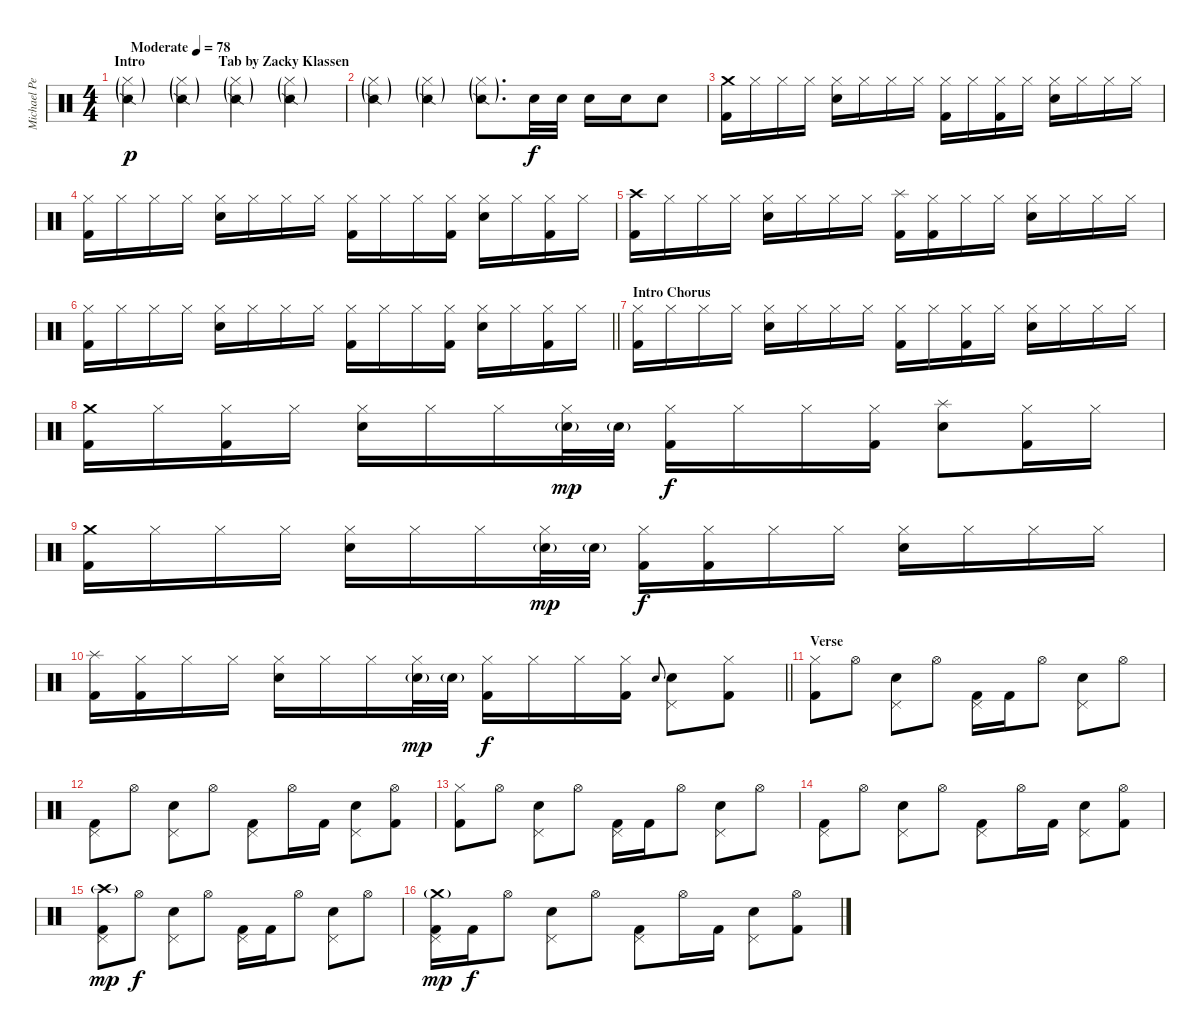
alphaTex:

\track ("Michael Pedicone [Drums]" "Michael Pe") {instrument percussion}
\staff {score}
\articulation defaults
\ts (4 4)
\section ("" "Intro                     Tab by Zacky Klassen")
\tempo (78 "Moderate")
\clef neutral
\ks c
("Snare (side stick) 2"{g} "Hi-Hat (closed)"{g}).4{dy p} ("Snare (side stick) 2"{g} "Hi-Hat (closed)"{g}).4 ("Snare (side stick) 2"{g} "Hi-Hat (closed)"{g}).4 ("Snare (side stick) 2"{g} "Hi-Hat (closed)"{g}).4 |
("Snare (side stick) 2"{g} "Hi-Hat (closed)"{g}).4 ("Snare (side stick) 2"{g} "Hi-Hat (closed)"{g}).4 ("Snare (side stick) 2"{g} "Hi-Hat (closed)"{g}).8{d} "Snare (hit) 2".32{dy f} "Snare (hit) 2".32 "Snare (hit) 2".16 "Snare (hit) 2".16 "Snare (hit) 2".8 |
("Crash medium (hit)" "Kick (hit) 2").16 "Hi-Hat (closed)".16 "Hi-Hat (closed)".16 "Hi-Hat (closed)".16 ("Hi-Hat (closed)" "Electric Snare (hit)").16 "Hi-Hat (closed)".16 "Hi-Hat (closed)".16 "Hi-Hat (closed)".16 ("Hi-Hat (closed)" "Kick (hit) 2").16 "Hi-Hat (closed)".16 ("Hi-Hat (closed)" "Kick (hit) 2").16 "Hi-Hat (closed)".16 ("Hi-Hat (closed)" "Electric Snare (hit)").16 "Hi-Hat (closed)".16 "Hi-Hat (closed)".16 "Hi-Hat (closed)".16 |
("Hi-Hat (closed)" "Kick (hit) 2").16 "Hi-Hat (closed)".16 "Hi-Hat (closed)".16 "Hi-Hat (closed)".16 ("Hi-Hat (closed)" "Electric Snare (hit)").16 "Hi-Hat (closed)".16 "Hi-Hat (closed)".16 "Hi-Hat (closed)".16 ("Hi-Hat (closed)" "Kick (hit) 2").16 "Hi-Hat (closed)".16 "Hi-Hat (closed)".16 ("Hi-Hat (closed)" "Kick (hit) 2").16 ("Hi-Hat (closed)" "Electric Snare (hit)").16 "Hi-Hat (closed)".16 ("Hi-Hat (closed)" "Kick (hit) 2").16 "Hi-Hat (closed)".16 |
("Crash high (hit)" "Kick (hit) 2").16 "Hi-Hat (closed)".16 "Hi-Hat (closed)".16 "Hi-Hat (closed)".16 ("Hi-Hat (closed)" "Electric Snare (hit)").16 "Hi-Hat (closed)".16 "Hi-Hat (closed)".16 "Hi-Hat (closed)".16 ("Splash (hit)" "Kick (hit) 2").16 ("Hi-Hat (closed)" "Kick (hit) 2").16 "Hi-Hat (closed)".16 "Hi-Hat (closed)".16 ("Hi-Hat (closed)" "Electric Snare (hit)").16 "Hi-Hat (closed)".16 "Hi-Hat (closed)".16 "Hi-Hat (closed)".16 |
\barLineRight lightlight
("Hi-Hat (closed)" "Kick (hit) 2").16 "Hi-Hat (closed)".16 "Hi-Hat (closed)".16 "Hi-Hat (closed)".16 ("Hi-Hat (closed)" "Electric Snare (hit)").16 "Hi-Hat (closed)".16 "Hi-Hat (closed)".16 "Hi-Hat (closed)".16 ("Hi-Hat (closed)" "Kick (hit) 2").16 "Hi-Hat (closed)".16 "Hi-Hat (closed)".16 ("Hi-Hat (closed)" "Kick (hit) 2").16 ("Hi-Hat (closed)" "Electric Snare (hit)").16 "Hi-Hat (closed)".16 ("Hi-Hat (closed)" "Kick (hit) 2").16 "Hi-Hat (closed)".16 |
\section ("" "Intro Chorus")
("Hi-Hat (closed)" "Kick (hit) 2").16 "Hi-Hat (closed)".16 "Hi-Hat (closed)".16 "Hi-Hat (closed)".16 ("Hi-Hat (closed)" "Electric Snare (hit)").16 "Hi-Hat (closed)".16 "Hi-Hat (closed)".16 "Hi-Hat (closed)".16 ("Hi-Hat (closed)" "Kick (hit) 2").16 "Hi-Hat (closed)".16 ("Hi-Hat (closed)" "Kick (hit) 2").16 "Hi-Hat (closed)".16 ("Hi-Hat (closed)" "Electric Snare (hit)").16 "Hi-Hat (closed)".16 "Hi-Hat (closed)".16 "Hi-Hat (closed)".16 |
("Crash medium (hit)" "Kick (hit) 2").16 "Hi-Hat (closed)".16 ("Hi-Hat (closed)" "Kick (hit) 2").16 "Hi-Hat (closed)".16 ("Hi-Hat (closed)" "Electric Snare (hit)").16 "Hi-Hat (closed)".16 "Hi-Hat (closed)".16 ("Hi-Hat (closed)" "Electric Snare (hit)"{g}).32{dy mp} "Electric Snare (hit)"{g}.32 ("Hi-Hat (closed)" "Kick (hit) 2").16{dy f} "Hi-Hat (closed)".16 "Hi-Hat (closed)".16 ("Hi-Hat (closed)" "Kick (hit) 2").16 ("Splash (hit)" "Electric Snare (hit)").8 ("Hi-Hat (closed)" "Kick (hit) 2").16 "Hi-Hat (closed)".16 |
("Crash medium (hit)" "Kick (hit) 2").16 "Hi-Hat (closed)".16 "Hi-Hat (closed)".16 "Hi-Hat (closed)".16 ("Hi-Hat (closed)" "Electric Snare (hit)").16 "Hi-Hat (closed)".16 "Hi-Hat (closed)".16 ("Hi-Hat (closed)" "Electric Snare (hit)"{g}).32{dy mp} "Electric Snare (hit)"{g}.32 ("Hi-Hat (closed)" "Kick (hit) 2").16{dy f} ("Hi-Hat (closed)" "Kick (hit) 2").16 "Hi-Hat (closed)".16 "Hi-Hat (closed)".16 ("Hi-Hat (closed)" "Electric Snare (hit)").16 "Hi-Hat (closed)".16 "Hi-Hat (closed)".16 "Hi-Hat (closed)".16 |
\barLineRight lightlight
("Splash (hit)" "Kick (hit) 2").16 ("Hi-Hat (closed)" "Kick (hit) 2").16 "Hi-Hat (closed)".16 "Hi-Hat (closed)".16 ("Hi-Hat (closed)" "Electric Snare (hit)").16 "Hi-Hat (closed)".16 "Hi-Hat (closed)".16 ("Hi-Hat (closed)" "Electric Snare (hit)"{g}).32{dy mp} "Electric Snare (hit)"{g}.32 ("Hi-Hat (closed)" "Kick (hit) 2").16{dy f} "Hi-Hat (closed)".16 "Hi-Hat (closed)".16 ("Hi-Hat (closed)" "Kick (hit) 2").16 "Electric Snare (hit)".8{gr onbeat} ("Pedal Hi-Hat (hit)" "Electric Snare (hit)").8 ("Hi-Hat (closed)" "Kick (hit) 2").8 |
\section ("" "Verse")
("Hi-Hat (closed)" "Kick (hit) 2").8 "Hi-Hat (open)".8 ("Pedal Hi-Hat (hit)" "Electric Snare (hit)").8 "Hi-Hat (open)".8 ("Pedal Hi-Hat (hit)" "Kick (hit) 2").16 "Kick (hit) 2".16 "Hi-Hat (open)".8 ("Pedal Hi-Hat (hit)" "Electric Snare (hit)").8 "Hi-Hat (open)".8 |
("Pedal Hi-Hat (hit)" "Kick (hit) 2").8 "Hi-Hat (open)".8 ("Pedal Hi-Hat (hit)" "Electric Snare (hit)").8 "Hi-Hat (open)".8 ("Pedal Hi-Hat (hit)" "Kick (hit) 2").8 "Hi-Hat (open)".16 "Kick (hit) 2".16 ("Pedal Hi-Hat (hit)" "Electric Snare (hit)").8 ("Hi-Hat (open)" "Kick (hit) 2").8 |
("Hi-Hat (closed)" "Kick (hit) 2").8 "Hi-Hat (open)".8 ("Pedal Hi-Hat (hit)" "Electric Snare (hit)").8 "Hi-Hat (open)".8 ("Pedal Hi-Hat (hit)" "Kick (hit) 2").16 "Kick (hit) 2".16 "Hi-Hat (open)".8 ("Pedal Hi-Hat (hit)" "Electric Snare (hit)").8 "Hi-Hat (open)".8 |
("Pedal Hi-Hat (hit)" "Kick (hit) 2").8 "Hi-Hat (open)".8 ("Pedal Hi-Hat (hit)" "Electric Snare (hit)").8 "Hi-Hat (open)".8 ("Pedal Hi-Hat (hit)" "Kick (hit) 2").8 "Hi-Hat (open)".16 "Kick (hit) 2".16 ("Pedal Hi-Hat (hit)" "Electric Snare (hit)").8 ("Hi-Hat (open)" "Kick (hit) 2").8 |
("Crash high (hit)"{g} "Pedal Hi-Hat (hit)" "Kick (hit) 2").8{dy mp} "Hi-Hat (open)".8{dy f} ("Pedal Hi-Hat (hit)" "Electric Snare (hit)").8 "Hi-Hat (open)".8 ("Pedal Hi-Hat (hit)" "Kick (hit) 2").16 "Kick (hit) 2".16 "Hi-Hat (open)".8 ("Pedal Hi-Hat (hit)" "Electric Snare (hit)").8 "Hi-Hat (open)".8 |
("Crash medium (hit)"{g} "Pedal Hi-Hat (hit)" "Kick (hit) 2").16{dy mp} "Kick (hit) 2".16{dy f} "Hi-Hat (open)".8 ("Pedal Hi-Hat (hit)" "Electric Snare (hit)").8 "Hi-Hat (open)".8 ("Pedal Hi-Hat (hit)" "Kick (hit) 2").8 "Hi-Hat (open)".16 "Kick (hit) 2".16 ("Pedal Hi-Hat (hit)" "Electric Snare (hit)").8 ("Hi-Hat (open)" "Kick (hit) 2").8
